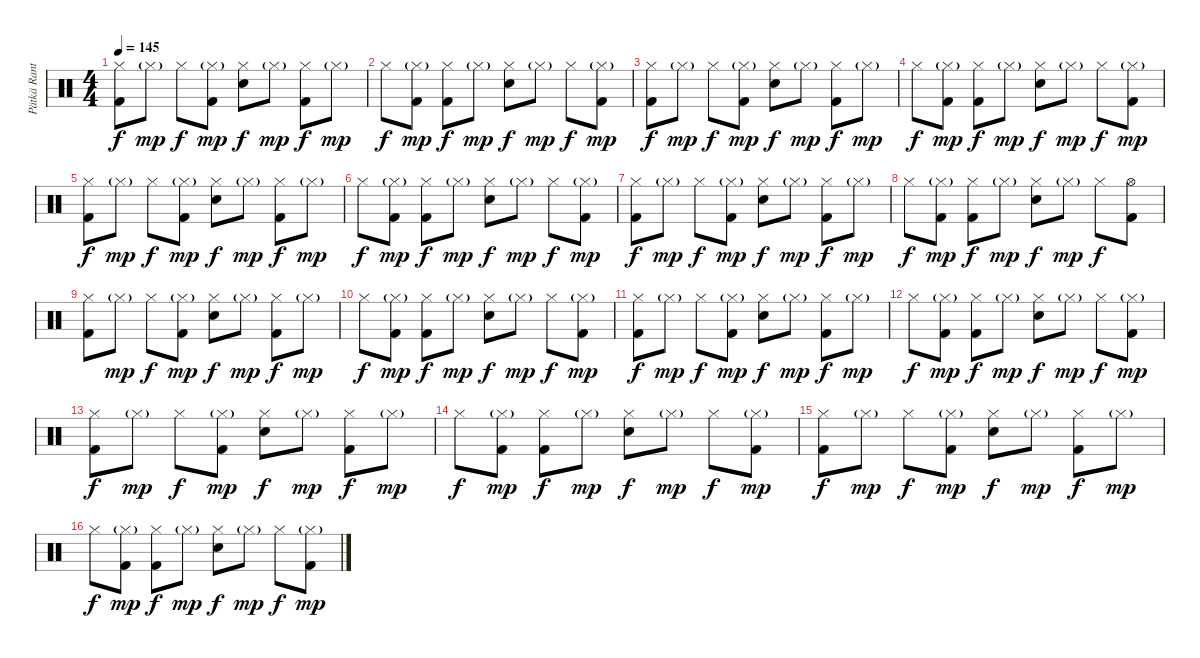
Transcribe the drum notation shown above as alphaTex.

\track ("Pätkä Rantala (Drums)" "Pätkä Rant") {instrument percussion}
\staff {score}
\articulation defaults
\ts (4 4)
\tempo 145
\clef neutral
\ks c
("Hi-Hat (closed)" "Kick (hit) 2").8{dy f} "Hi-Hat (closed)"{g}.8{dy mp} "Hi-Hat (closed)".8{dy f} ("Hi-Hat (closed)"{g} "Kick (hit) 2").8{dy mp} ("Hi-Hat (closed)" "Snare (hit) 2").8{dy f} "Hi-Hat (closed)"{g}.8{dy mp} ("Hi-Hat (closed)" "Kick (hit) 2").8{dy f} "Hi-Hat (closed)"{g}.8{dy mp} |
"Hi-Hat (closed)".8{dy f} ("Hi-Hat (closed)"{g} "Kick (hit) 2").8{dy mp} ("Hi-Hat (closed)" "Kick (hit) 2").8{dy f} "Hi-Hat (closed)"{g}.8{dy mp} ("Hi-Hat (closed)" "Snare (hit) 2").8{dy f} "Hi-Hat (closed)"{g}.8{dy mp} "Hi-Hat (closed)".8{dy f} ("Hi-Hat (closed)"{g} "Kick (hit) 2").8{dy mp} |
("Hi-Hat (closed)" "Kick (hit) 2").8{dy f} "Hi-Hat (closed)"{g}.8{dy mp} "Hi-Hat (closed)".8{dy f} ("Hi-Hat (closed)"{g} "Kick (hit) 2").8{dy mp} ("Hi-Hat (closed)" "Snare (hit) 2").8{dy f} "Hi-Hat (closed)"{g}.8{dy mp} ("Hi-Hat (closed)" "Kick (hit) 2").8{dy f} "Hi-Hat (closed)"{g}.8{dy mp} |
"Hi-Hat (closed)".8{dy f} ("Hi-Hat (closed)"{g} "Kick (hit) 2").8{dy mp} ("Hi-Hat (closed)" "Kick (hit) 2").8{dy f} "Hi-Hat (closed)"{g}.8{dy mp} ("Hi-Hat (closed)" "Snare (hit) 2").8{dy f} "Hi-Hat (closed)"{g}.8{dy mp} "Hi-Hat (closed)".8{dy f} ("Hi-Hat (closed)"{g} "Kick (hit) 2").8{dy mp} |
("Hi-Hat (closed)" "Kick (hit) 2").8{dy f} "Hi-Hat (closed)"{g}.8{dy mp} "Hi-Hat (closed)".8{dy f} ("Hi-Hat (closed)"{g} "Kick (hit) 2").8{dy mp} ("Hi-Hat (closed)" "Snare (hit) 2").8{dy f} "Hi-Hat (closed)"{g}.8{dy mp} ("Hi-Hat (closed)" "Kick (hit) 2").8{dy f} "Hi-Hat (closed)"{g}.8{dy mp} |
"Hi-Hat (closed)".8{dy f} ("Hi-Hat (closed)"{g} "Kick (hit) 2").8{dy mp} ("Hi-Hat (closed)" "Kick (hit) 2").8{dy f} "Hi-Hat (closed)"{g}.8{dy mp} ("Hi-Hat (closed)" "Snare (hit) 2").8{dy f} "Hi-Hat (closed)"{g}.8{dy mp} "Hi-Hat (closed)".8{dy f} ("Hi-Hat (closed)"{g} "Kick (hit) 2").8{dy mp} |
("Hi-Hat (closed)" "Kick (hit) 2").8{dy f} "Hi-Hat (closed)"{g}.8{dy mp} "Hi-Hat (closed)".8{dy f} ("Hi-Hat (closed)"{g} "Kick (hit) 2").8{dy mp} ("Hi-Hat (closed)" "Snare (hit) 2").8{dy f} "Hi-Hat (closed)"{g}.8{dy mp} ("Hi-Hat (closed)" "Kick (hit) 2").8{dy f} "Hi-Hat (closed)"{g}.8{dy mp} |
"Hi-Hat (closed)".8{dy f} ("Hi-Hat (closed)"{g} "Kick (hit) 2").8{dy mp} ("Hi-Hat (closed)" "Kick (hit) 2").8{dy f} "Hi-Hat (closed)"{g}.8{dy mp} ("Hi-Hat (closed)" "Snare (hit) 2").8{dy f} "Hi-Hat (closed)"{g}.8{dy mp} "Hi-Hat (closed)".8{dy f} ("Hi-Hat (open)" "Kick (hit) 2").8 |
("Hi-Hat (closed)" "Kick (hit) 2").8 "Hi-Hat (closed)"{g}.8{dy mp} "Hi-Hat (closed)".8{dy f} ("Hi-Hat (closed)"{g} "Kick (hit) 2").8{dy mp} ("Hi-Hat (closed)" "Snare (hit) 2").8{dy f} "Hi-Hat (closed)"{g}.8{dy mp} ("Hi-Hat (closed)" "Kick (hit) 2").8{dy f} "Hi-Hat (closed)"{g}.8{dy mp} |
"Hi-Hat (closed)".8{dy f} ("Hi-Hat (closed)"{g} "Kick (hit) 2").8{dy mp} ("Hi-Hat (closed)" "Kick (hit) 2").8{dy f} "Hi-Hat (closed)"{g}.8{dy mp} ("Hi-Hat (closed)" "Snare (hit) 2").8{dy f} "Hi-Hat (closed)"{g}.8{dy mp} "Hi-Hat (closed)".8{dy f} ("Hi-Hat (closed)"{g} "Kick (hit) 2").8{dy mp} |
("Hi-Hat (closed)" "Kick (hit) 2").8{dy f} "Hi-Hat (closed)"{g}.8{dy mp} "Hi-Hat (closed)".8{dy f} ("Hi-Hat (closed)"{g} "Kick (hit) 2").8{dy mp} ("Hi-Hat (closed)" "Snare (hit) 2").8{dy f} "Hi-Hat (closed)"{g}.8{dy mp} ("Hi-Hat (closed)" "Kick (hit) 2").8{dy f} "Hi-Hat (closed)"{g}.8{dy mp} |
"Hi-Hat (closed)".8{dy f} ("Hi-Hat (closed)"{g} "Kick (hit) 2").8{dy mp} ("Hi-Hat (closed)" "Kick (hit) 2").8{dy f} "Hi-Hat (closed)"{g}.8{dy mp} ("Hi-Hat (closed)" "Snare (hit) 2").8{dy f} "Hi-Hat (closed)"{g}.8{dy mp} "Hi-Hat (closed)".8{dy f} ("Hi-Hat (closed)"{g} "Kick (hit) 2").8{dy mp} |
("Hi-Hat (closed)" "Kick (hit) 2").8{dy f} "Hi-Hat (closed)"{g}.8{dy mp} "Hi-Hat (closed)".8{dy f} ("Hi-Hat (closed)"{g} "Kick (hit) 2").8{dy mp} ("Hi-Hat (closed)" "Snare (hit) 2").8{dy f} "Hi-Hat (closed)"{g}.8{dy mp} ("Hi-Hat (closed)" "Kick (hit) 2").8{dy f} "Hi-Hat (closed)"{g}.8{dy mp} |
"Hi-Hat (closed)".8{dy f} ("Hi-Hat (closed)"{g} "Kick (hit) 2").8{dy mp} ("Hi-Hat (closed)" "Kick (hit) 2").8{dy f} "Hi-Hat (closed)"{g}.8{dy mp} ("Hi-Hat (closed)" "Snare (hit) 2").8{dy f} "Hi-Hat (closed)"{g}.8{dy mp} "Hi-Hat (closed)".8{dy f} ("Hi-Hat (closed)"{g} "Kick (hit) 2").8{dy mp} |
("Hi-Hat (closed)" "Kick (hit) 2").8{dy f} "Hi-Hat (closed)"{g}.8{dy mp} "Hi-Hat (closed)".8{dy f} ("Hi-Hat (closed)"{g} "Kick (hit) 2").8{dy mp} ("Hi-Hat (closed)" "Snare (hit) 2").8{dy f} "Hi-Hat (closed)"{g}.8{dy mp} ("Hi-Hat (closed)" "Kick (hit) 2").8{dy f} "Hi-Hat (closed)"{g}.8{dy mp} |
"Hi-Hat (closed)".8{dy f} ("Hi-Hat (closed)"{g} "Kick (hit) 2").8{dy mp} ("Hi-Hat (closed)" "Kick (hit) 2").8{dy f} "Hi-Hat (closed)"{g}.8{dy mp} ("Hi-Hat (closed)" "Snare (hit) 2").8{dy f} "Hi-Hat (closed)"{g}.8{dy mp} "Hi-Hat (closed)".8{dy f} ("Hi-Hat (closed)"{g} "Kick (hit) 2").8{dy mp}
